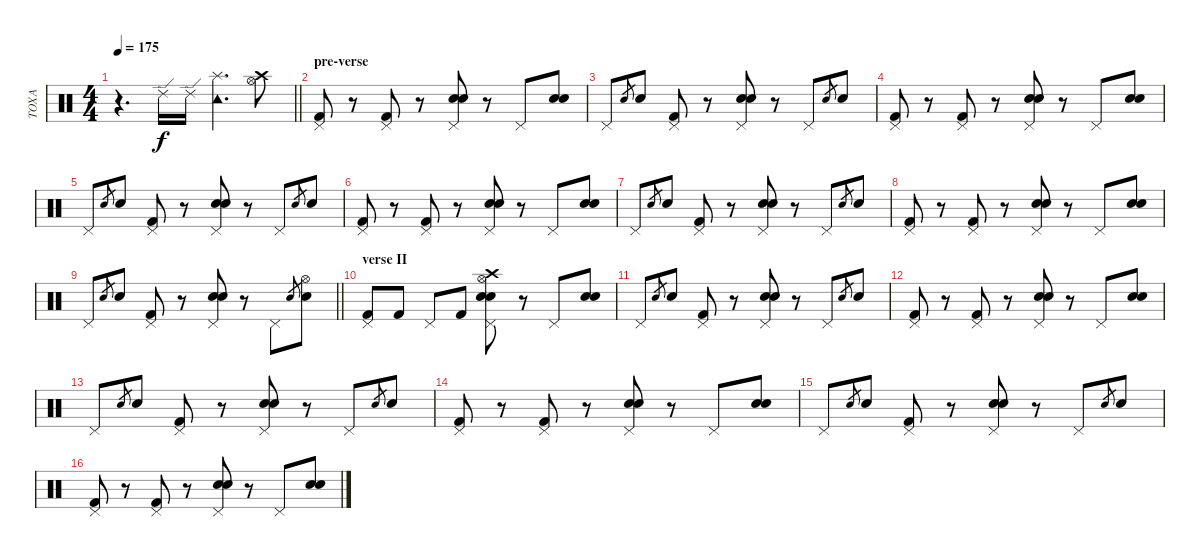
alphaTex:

\track ("TOXA" "TOXA") {instrument percussion}
\staff {score}
\articulation defaults
\ts (4 4)
\tempo 175
\clef neutral
\barLineRight lightlight
\ks c
r.4{d dy f} "Ride (edge) 2".16 "Ride (edge) 2".16 ("Tambourine (hit)" "Splash (hit)").4{d} ("Hi-Hat (open)" "Crash high (hit)").8 |
\section ("" "pre-verse")
("Pedal Hi-Hat (hit)" "Kick (hit) 2").8 r.8 ("Pedal Hi-Hat (hit)" "Kick (hit) 2").8 r.8 ("Pedal Hi-Hat (hit)" "Electric Snare (hit)" "Snare (hit) 2").8 r.8 "Pedal Hi-Hat (hit)".8 ("Electric Snare (hit)" "Snare (hit) 2").8 |
"Pedal Hi-Hat (hit)".8 "Electric Snare (hit)".8{gr} "Electric Snare (hit)".8 ("Pedal Hi-Hat (hit)" "Kick (hit) 2").8 r.8 ("Pedal Hi-Hat (hit)" "Electric Snare (hit)" "Snare (hit) 2").8 r.8 "Pedal Hi-Hat (hit)".8 "Electric Snare (hit)".8{gr} "Electric Snare (hit)".8 |
("Pedal Hi-Hat (hit)" "Kick (hit) 2").8 r.8 ("Pedal Hi-Hat (hit)" "Kick (hit) 2").8 r.8 ("Pedal Hi-Hat (hit)" "Electric Snare (hit)" "Snare (hit) 2").8 r.8 "Pedal Hi-Hat (hit)".8 ("Electric Snare (hit)" "Snare (hit) 2").8 |
"Pedal Hi-Hat (hit)".8 "Electric Snare (hit)".8{gr} "Electric Snare (hit)".8 ("Pedal Hi-Hat (hit)" "Kick (hit) 2").8 r.8 ("Pedal Hi-Hat (hit)" "Electric Snare (hit)" "Snare (hit) 2").8 r.8 "Pedal Hi-Hat (hit)".8 "Electric Snare (hit)".8{gr} "Electric Snare (hit)".8 |
("Pedal Hi-Hat (hit)" "Kick (hit) 2").8 r.8 ("Pedal Hi-Hat (hit)" "Kick (hit) 2").8 r.8 ("Pedal Hi-Hat (hit)" "Electric Snare (hit)" "Snare (hit) 2").8 r.8 "Pedal Hi-Hat (hit)".8 ("Electric Snare (hit)" "Snare (hit) 2").8 |
"Pedal Hi-Hat (hit)".8 "Electric Snare (hit)".8{gr} "Electric Snare (hit)".8 ("Pedal Hi-Hat (hit)" "Kick (hit) 2").8 r.8 ("Pedal Hi-Hat (hit)" "Electric Snare (hit)" "Snare (hit) 2").8 r.8 "Pedal Hi-Hat (hit)".8 "Electric Snare (hit)".8{gr} "Electric Snare (hit)".8 |
("Pedal Hi-Hat (hit)" "Kick (hit) 2").8 r.8 ("Pedal Hi-Hat (hit)" "Kick (hit) 2").8 r.8 ("Pedal Hi-Hat (hit)" "Electric Snare (hit)" "Snare (hit) 2").8 r.8 "Pedal Hi-Hat (hit)".8 ("Electric Snare (hit)" "Snare (hit) 2").8 |
\barLineRight lightlight "Pedal Hi-Hat (hit)".8 "Electric Snare (hit)".8{gr} "Electric Snare (hit)".8
("Pedal Hi-Hat (hit)" "Kick (hit) 2").8 r.8 ("Pedal Hi-Hat (hit)" "Electric Snare (hit)" "Snare (hit) 2").8 r.8 "Pedal Hi-Hat (hit)".8 "Electric Snare (hit)".8{gr} ("Hi-Hat (open)" "Electric Snare (hit)").8 |
\section ("" "verse II")
("Pedal Hi-Hat (hit)" "Kick (hit) 2").8 "Kick (hit) 2".8 "Pedal Hi-Hat (hit)".8 "Kick (hit) 2".8 ("Hi-Hat (open)" "Pedal Hi-Hat (hit)" "Crash high (hit)" "Snare (hit) 2" "Electric Snare (hit)").8 r.8 "Pedal Hi-Hat (hit)".8 ("Electric Snare (hit)" "Snare (hit) 2").8 |
"Pedal Hi-Hat (hit)".8 "Electric Snare (hit)".8{gr} "Electric Snare (hit)".8 ("Pedal Hi-Hat (hit)" "Kick (hit) 2").8 r.8 ("Pedal Hi-Hat (hit)" "Electric Snare (hit)" "Snare (hit) 2").8 r.8 "Pedal Hi-Hat (hit)".8 "Electric Snare (hit)".8{gr} "Electric Snare (hit)".8 |
("Pedal Hi-Hat (hit)" "Kick (hit) 2").8 r.8 ("Pedal Hi-Hat (hit)" "Kick (hit) 2").8 r.8 ("Pedal Hi-Hat (hit)" "Electric Snare (hit)" "Snare (hit) 2").8 r.8 "Pedal Hi-Hat (hit)".8 ("Electric Snare (hit)" "Snare (hit) 2").8 |
"Pedal Hi-Hat (hit)".8 "Electric Snare (hit)".8{gr} "Electric Snare (hit)".8 ("Pedal Hi-Hat (hit)" "Kick (hit) 2").8 r.8 ("Pedal Hi-Hat (hit)" "Electric Snare (hit)" "Snare (hit) 2").8 r.8 "Pedal Hi-Hat (hit)".8 "Electric Snare (hit)".8{gr} "Electric Snare (hit)".8 |
("Pedal Hi-Hat (hit)" "Kick (hit) 2").8 r.8 ("Pedal Hi-Hat (hit)" "Kick (hit) 2").8 r.8 ("Pedal Hi-Hat (hit)" "Electric Snare (hit)" "Snare (hit) 2").8 r.8 "Pedal Hi-Hat (hit)".8 ("Electric Snare (hit)" "Snare (hit) 2").8 |
"Pedal Hi-Hat (hit)".8 "Electric Snare (hit)".8{gr} "Electric Snare (hit)".8 ("Pedal Hi-Hat (hit)" "Kick (hit) 2").8 r.8 ("Pedal Hi-Hat (hit)" "Electric Snare (hit)" "Snare (hit) 2").8 r.8 "Pedal Hi-Hat (hit)".8 "Electric Snare (hit)".8{gr} "Electric Snare (hit)".8 |
("Pedal Hi-Hat (hit)" "Kick (hit) 2").8 r.8 ("Pedal Hi-Hat (hit)" "Kick (hit) 2").8 r.8 ("Pedal Hi-Hat (hit)" "Electric Snare (hit)" "Snare (hit) 2").8 r.8 "Pedal Hi-Hat (hit)".8 ("Electric Snare (hit)" "Snare (hit) 2").8
